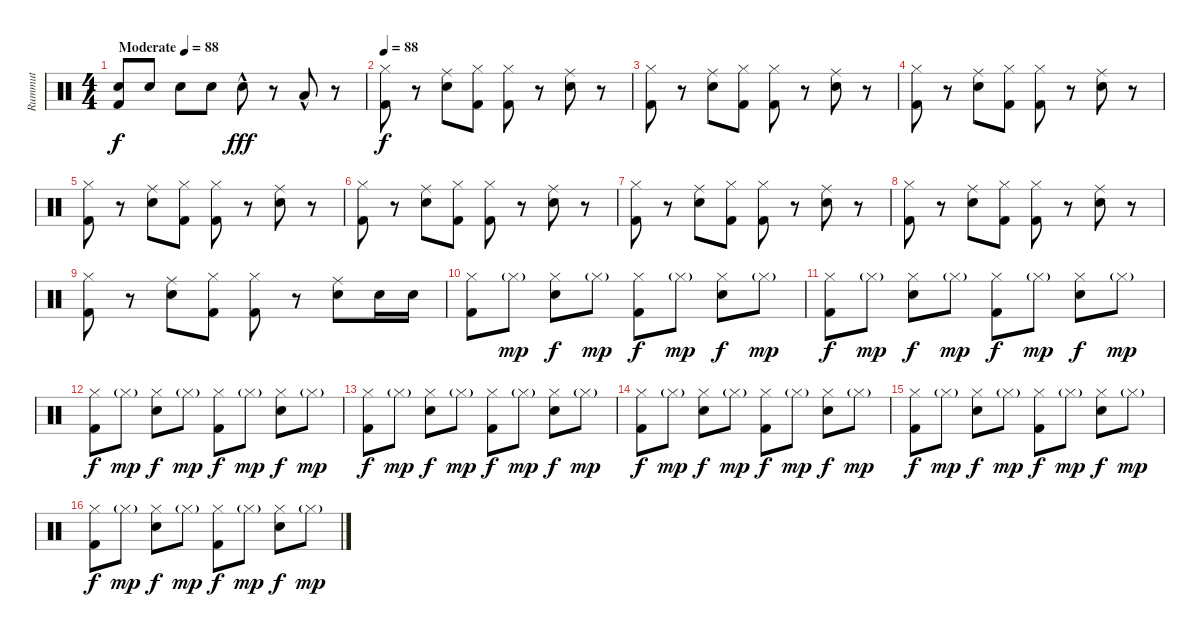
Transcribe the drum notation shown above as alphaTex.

\track ("Rummut" "Rummut") {instrument percussion}
\staff {score}
\articulation defaults
\ts (4 4)
\tempo (88 "Moderate")
\tempo 180
\tempo (88 "Moderate")
\clef neutral
\ks c
("Snare (hit) 2" "Kick (hit) 2").8{dy f volume 7} "Snare (hit) 2".8 "Snare (hit) 2".8 "Snare (hit) 2".8 "Snare (hit) 2"{hac}.8{dy fff} r.8 "Low Floor Tom (hit)"{hac}.8 r.8 |
\tempo 88
("Hi-Hat (closed)" "Kick (hit) 2").8{dy f volume 2} r.8 ("Ride (middle)" "Snare (hit) 2").8 ("Hi-Hat (closed)" "Kick (hit) 2").8 ("Hi-Hat (closed)" "Kick (hit) 2").8 r.8 ("Ride (middle)" "Snare (hit) 2").8 r.8 |
("Hi-Hat (closed)" "Kick (hit) 2").8 r.8 ("Ride (middle)" "Snare (hit) 2").8 ("Hi-Hat (closed)" "Kick (hit) 2").8 ("Hi-Hat (closed)" "Kick (hit) 2").8 r.8 ("Ride (middle)" "Snare (hit) 2").8 r.8 |
("Hi-Hat (closed)" "Kick (hit) 2").8 r.8 ("Ride (middle)" "Snare (hit) 2").8 ("Hi-Hat (closed)" "Kick (hit) 2").8 ("Hi-Hat (closed)" "Kick (hit) 2").8 r.8 ("Ride (middle)" "Snare (hit) 2").8 r.8 |
("Hi-Hat (closed)" "Kick (hit) 2").8 r.8 ("Ride (middle)" "Snare (hit) 2").8 ("Hi-Hat (closed)" "Kick (hit) 2").8 ("Hi-Hat (closed)" "Kick (hit) 2").8 r.8 ("Ride (middle)" "Snare (hit) 2").8 r.8 |
("Hi-Hat (closed)" "Kick (hit) 2").8 r.8 ("Ride (middle)" "Snare (hit) 2").8 ("Hi-Hat (closed)" "Kick (hit) 2").8 ("Hi-Hat (closed)" "Kick (hit) 2").8 r.8 ("Ride (middle)" "Snare (hit) 2").8 r.8 |
("Hi-Hat (closed)" "Kick (hit) 2").8 r.8 ("Ride (middle)" "Snare (hit) 2").8 ("Hi-Hat (closed)" "Kick (hit) 2").8 ("Hi-Hat (closed)" "Kick (hit) 2").8 r.8 ("Ride (middle)" "Snare (hit) 2").8 r.8 |
("Hi-Hat (closed)" "Kick (hit) 2").8 r.8 ("Ride (middle)" "Snare (hit) 2").8 ("Hi-Hat (closed)" "Kick (hit) 2").8 ("Hi-Hat (closed)" "Kick (hit) 2").8 r.8 ("Ride (middle)" "Snare (hit) 2").8 r.8 |
("Hi-Hat (closed)" "Kick (hit) 2").8 r.8 ("Ride (middle)" "Snare (hit) 2").8 ("Hi-Hat (closed)" "Kick (hit) 2").8 ("Hi-Hat (closed)" "Kick (hit) 2").8 r.8 ("Ride (middle)" "Snare (hit) 2").8 "Snare (hit) 2".16 "Snare (hit) 2".16 |
("Hi-Hat (closed)" "Kick (hit) 2").8 "Hi-Hat (closed)"{g}.8{dy mp} ("Hi-Hat (closed)" "Snare (hit) 2").8{dy f} "Hi-Hat (closed)"{g}.8{dy mp} ("Hi-Hat (closed)" "Kick (hit) 2").8{dy f} "Hi-Hat (closed)"{g}.8{dy mp} ("Hi-Hat (closed)" "Snare (hit) 2").8{dy f} "Hi-Hat (closed)"{g}.8{dy mp} |
("Hi-Hat (closed)" "Kick (hit) 2").8{dy f} "Hi-Hat (closed)"{g}.8{dy mp} ("Hi-Hat (closed)" "Snare (hit) 2").8{dy f} "Hi-Hat (closed)"{g}.8{dy mp} ("Hi-Hat (closed)" "Kick (hit) 2").8{dy f} "Hi-Hat (closed)"{g}.8{dy mp} ("Hi-Hat (closed)" "Snare (hit) 2").8{dy f} "Hi-Hat (closed)"{g}.8{dy mp} |
("Hi-Hat (closed)" "Kick (hit) 2").8{dy f} "Hi-Hat (closed)"{g}.8{dy mp} ("Hi-Hat (closed)" "Snare (hit) 2").8{dy f} "Hi-Hat (closed)"{g}.8{dy mp} ("Hi-Hat (closed)" "Kick (hit) 2").8{dy f} "Hi-Hat (closed)"{g}.8{dy mp} ("Hi-Hat (closed)" "Snare (hit) 2").8{dy f} "Hi-Hat (closed)"{g}.8{dy mp} |
("Hi-Hat (closed)" "Kick (hit) 2").8{dy f} "Hi-Hat (closed)"{g}.8{dy mp} ("Hi-Hat (closed)" "Snare (hit) 2").8{dy f} "Hi-Hat (closed)"{g}.8{dy mp} ("Hi-Hat (closed)" "Kick (hit) 2").8{dy f} "Hi-Hat (closed)"{g}.8{dy mp} ("Hi-Hat (closed)" "Snare (hit) 2").8{dy f} "Hi-Hat (closed)"{g}.8{dy mp} |
("Hi-Hat (closed)" "Kick (hit) 2").8{dy f} "Hi-Hat (closed)"{g}.8{dy mp} ("Hi-Hat (closed)" "Snare (hit) 2").8{dy f} "Hi-Hat (closed)"{g}.8{dy mp} ("Hi-Hat (closed)" "Kick (hit) 2").8{dy f} "Hi-Hat (closed)"{g}.8{dy mp} ("Hi-Hat (closed)" "Snare (hit) 2").8{dy f} "Hi-Hat (closed)"{g}.8{dy mp} |
("Hi-Hat (closed)" "Kick (hit) 2").8{dy f} "Hi-Hat (closed)"{g}.8{dy mp} ("Hi-Hat (closed)" "Snare (hit) 2").8{dy f} "Hi-Hat (closed)"{g}.8{dy mp} ("Hi-Hat (closed)" "Kick (hit) 2").8{dy f} "Hi-Hat (closed)"{g}.8{dy mp} ("Hi-Hat (closed)" "Snare (hit) 2").8{dy f} "Hi-Hat (closed)"{g}.8{dy mp} |
("Hi-Hat (closed)" "Kick (hit) 2").8{dy f} "Hi-Hat (closed)"{g}.8{dy mp} ("Hi-Hat (closed)" "Snare (hit) 2").8{dy f} "Hi-Hat (closed)"{g}.8{dy mp} ("Hi-Hat (closed)" "Kick (hit) 2").8{dy f} "Hi-Hat (closed)"{g}.8{dy mp} ("Hi-Hat (closed)" "Snare (hit) 2").8{dy f} "Hi-Hat (closed)"{g}.8{dy mp}
